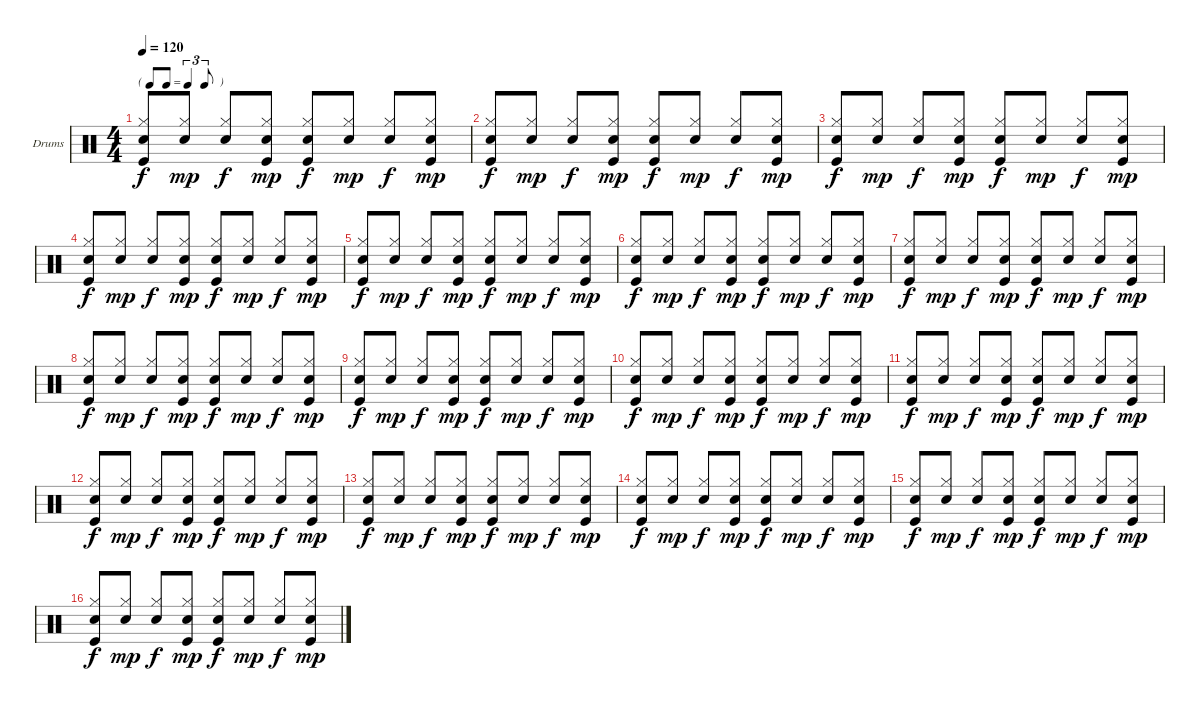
\defaultSystemsLayout 4
\bracketExtendMode groupsimilarinstruments
\firstSystemTrackNameOrientation horizontal
\otherSystemsTrackNameOrientation horizontal
\track ("Drumkit" "Drums") {instrument percussion}
\staff {score}
\articulation defaults
\ts (4 4)
\tf triplet8th
\tempo 120
\clef neutral
\ks c
("Hi-Hat (closed)" "Kick (hit)" "Snare (hit) 2").8{dy f beam invert} ("Hi-Hat (closed)" "Snare (hit) 2").8{dy mp} ("Hi-Hat (closed)" "Snare (hit) 2").8{dy f beam invert} ("Hi-Hat (closed)" "Kick (hit)" "Snare (hit) 2").8{dy mp} ("Hi-Hat (closed)" "Kick (hit)" "Snare (hit) 2").8{dy f beam invert} ("Hi-Hat (closed)" "Snare (hit) 2").8{dy mp} ("Hi-Hat (closed)" "Snare (hit) 2").8{dy f beam invert} ("Hi-Hat (closed)" "Kick (hit)" "Snare (hit) 2").8{dy mp} |
("Hi-Hat (closed)" "Kick (hit)" "Snare (hit) 2").8{dy f beam invert} ("Hi-Hat (closed)" "Snare (hit) 2").8{dy mp} ("Hi-Hat (closed)" "Snare (hit) 2").8{dy f beam invert} ("Hi-Hat (closed)" "Kick (hit)" "Snare (hit) 2").8{dy mp} ("Hi-Hat (closed)" "Kick (hit)" "Snare (hit) 2").8{dy f beam invert} ("Hi-Hat (closed)" "Snare (hit) 2").8{dy mp} ("Hi-Hat (closed)" "Snare (hit) 2").8{dy f beam invert} ("Hi-Hat (closed)" "Kick (hit)" "Snare (hit) 2").8{dy mp} |
("Hi-Hat (closed)" "Kick (hit)" "Snare (hit) 2").8{dy f beam invert} ("Hi-Hat (closed)" "Snare (hit) 2").8{dy mp} ("Hi-Hat (closed)" "Snare (hit) 2").8{dy f beam invert} ("Hi-Hat (closed)" "Kick (hit)" "Snare (hit) 2").8{dy mp} ("Hi-Hat (closed)" "Kick (hit)" "Snare (hit) 2").8{dy f beam invert} ("Hi-Hat (closed)" "Snare (hit) 2").8{dy mp} ("Hi-Hat (closed)" "Snare (hit) 2").8{dy f beam invert} ("Hi-Hat (closed)" "Kick (hit)" "Snare (hit) 2").8{dy mp} |
("Hi-Hat (closed)" "Kick (hit)" "Snare (hit) 2").8{dy f beam invert} ("Hi-Hat (closed)" "Snare (hit) 2").8{dy mp} ("Hi-Hat (closed)" "Snare (hit) 2").8{dy f beam invert} ("Hi-Hat (closed)" "Kick (hit)" "Snare (hit) 2").8{dy mp} ("Hi-Hat (closed)" "Kick (hit)" "Snare (hit) 2").8{dy f beam invert} ("Hi-Hat (closed)" "Snare (hit) 2").8{dy mp} ("Hi-Hat (closed)" "Snare (hit) 2").8{dy f beam invert} ("Hi-Hat (closed)" "Kick (hit)" "Snare (hit) 2").8{dy mp} |
("Hi-Hat (closed)" "Kick (hit)" "Snare (hit) 2").8{dy f beam invert} ("Hi-Hat (closed)" "Snare (hit) 2").8{dy mp} ("Hi-Hat (closed)" "Snare (hit) 2").8{dy f beam invert} ("Hi-Hat (closed)" "Kick (hit)" "Snare (hit) 2").8{dy mp} ("Hi-Hat (closed)" "Kick (hit)" "Snare (hit) 2").8{dy f beam invert} ("Hi-Hat (closed)" "Snare (hit) 2").8{dy mp} ("Hi-Hat (closed)" "Snare (hit) 2").8{dy f beam invert} ("Hi-Hat (closed)" "Kick (hit)" "Snare (hit) 2").8{dy mp} |
("Hi-Hat (closed)" "Kick (hit)" "Snare (hit) 2").8{dy f beam invert} ("Hi-Hat (closed)" "Snare (hit) 2").8{dy mp} ("Hi-Hat (closed)" "Snare (hit) 2").8{dy f beam invert} ("Hi-Hat (closed)" "Kick (hit)" "Snare (hit) 2").8{dy mp} ("Hi-Hat (closed)" "Kick (hit)" "Snare (hit) 2").8{dy f beam invert} ("Hi-Hat (closed)" "Snare (hit) 2").8{dy mp} ("Hi-Hat (closed)" "Snare (hit) 2").8{dy f beam invert} ("Hi-Hat (closed)" "Kick (hit)" "Snare (hit) 2").8{dy mp} |
("Hi-Hat (closed)" "Kick (hit)" "Snare (hit) 2").8{dy f beam invert} ("Hi-Hat (closed)" "Snare (hit) 2").8{dy mp} ("Hi-Hat (closed)" "Snare (hit) 2").8{dy f beam invert} ("Hi-Hat (closed)" "Kick (hit)" "Snare (hit) 2").8{dy mp} ("Hi-Hat (closed)" "Kick (hit)" "Snare (hit) 2").8{dy f beam invert} ("Hi-Hat (closed)" "Snare (hit) 2").8{dy mp} ("Hi-Hat (closed)" "Snare (hit) 2").8{dy f beam invert} ("Hi-Hat (closed)" "Kick (hit)" "Snare (hit) 2").8{dy mp} |
("Hi-Hat (closed)" "Kick (hit)" "Snare (hit) 2").8{dy f beam invert} ("Hi-Hat (closed)" "Snare (hit) 2").8{dy mp} ("Hi-Hat (closed)" "Snare (hit) 2").8{dy f beam invert} ("Hi-Hat (closed)" "Kick (hit)" "Snare (hit) 2").8{dy mp} ("Hi-Hat (closed)" "Kick (hit)" "Snare (hit) 2").8{dy f beam invert} ("Hi-Hat (closed)" "Snare (hit) 2").8{dy mp} ("Hi-Hat (closed)" "Snare (hit) 2").8{dy f beam invert} ("Hi-Hat (closed)" "Kick (hit)" "Snare (hit) 2").8{dy mp} |
("Hi-Hat (closed)" "Kick (hit)" "Snare (hit) 2").8{dy f beam invert} ("Hi-Hat (closed)" "Snare (hit) 2").8{dy mp} ("Hi-Hat (closed)" "Snare (hit) 2").8{dy f beam invert} ("Hi-Hat (closed)" "Kick (hit)" "Snare (hit) 2").8{dy mp} ("Hi-Hat (closed)" "Kick (hit)" "Snare (hit) 2").8{dy f beam invert} ("Hi-Hat (closed)" "Snare (hit) 2").8{dy mp} ("Hi-Hat (closed)" "Snare (hit) 2").8{dy f beam invert} ("Hi-Hat (closed)" "Kick (hit)" "Snare (hit) 2").8{dy mp} |
("Hi-Hat (closed)" "Kick (hit)" "Snare (hit) 2").8{dy f beam invert} ("Hi-Hat (closed)" "Snare (hit) 2").8{dy mp} ("Hi-Hat (closed)" "Snare (hit) 2").8{dy f beam invert} ("Hi-Hat (closed)" "Kick (hit)" "Snare (hit) 2").8{dy mp} ("Hi-Hat (closed)" "Kick (hit)" "Snare (hit) 2").8{dy f beam invert} ("Hi-Hat (closed)" "Snare (hit) 2").8{dy mp} ("Hi-Hat (closed)" "Snare (hit) 2").8{dy f beam invert} ("Hi-Hat (closed)" "Kick (hit)" "Snare (hit) 2").8{dy mp} |
("Hi-Hat (closed)" "Kick (hit)" "Snare (hit) 2").8{dy f beam invert} ("Hi-Hat (closed)" "Snare (hit) 2").8{dy mp} ("Hi-Hat (closed)" "Snare (hit) 2").8{dy f beam invert} ("Hi-Hat (closed)" "Kick (hit)" "Snare (hit) 2").8{dy mp} ("Hi-Hat (closed)" "Kick (hit)" "Snare (hit) 2").8{dy f beam invert} ("Hi-Hat (closed)" "Snare (hit) 2").8{dy mp} ("Hi-Hat (closed)" "Snare (hit) 2").8{dy f beam invert} ("Hi-Hat (closed)" "Kick (hit)" "Snare (hit) 2").8{dy mp} |
("Hi-Hat (closed)" "Kick (hit)" "Snare (hit) 2").8{dy f beam invert} ("Hi-Hat (closed)" "Snare (hit) 2").8{dy mp} ("Hi-Hat (closed)" "Snare (hit) 2").8{dy f beam invert} ("Hi-Hat (closed)" "Kick (hit)" "Snare (hit) 2").8{dy mp} ("Hi-Hat (closed)" "Kick (hit)" "Snare (hit) 2").8{dy f beam invert} ("Hi-Hat (closed)" "Snare (hit) 2").8{dy mp} ("Hi-Hat (closed)" "Snare (hit) 2").8{dy f beam invert} ("Hi-Hat (closed)" "Kick (hit)" "Snare (hit) 2").8{dy mp} |
("Hi-Hat (closed)" "Kick (hit)" "Snare (hit) 2").8{dy f beam invert} ("Hi-Hat (closed)" "Snare (hit) 2").8{dy mp} ("Hi-Hat (closed)" "Snare (hit) 2").8{dy f beam invert} ("Hi-Hat (closed)" "Kick (hit)" "Snare (hit) 2").8{dy mp} ("Hi-Hat (closed)" "Kick (hit)" "Snare (hit) 2").8{dy f beam invert} ("Hi-Hat (closed)" "Snare (hit) 2").8{dy mp} ("Hi-Hat (closed)" "Snare (hit) 2").8{dy f beam invert} ("Hi-Hat (closed)" "Kick (hit)" "Snare (hit) 2").8{dy mp} |
("Hi-Hat (closed)" "Kick (hit)" "Snare (hit) 2").8{dy f beam invert} ("Hi-Hat (closed)" "Snare (hit) 2").8{dy mp} ("Hi-Hat (closed)" "Snare (hit) 2").8{dy f beam invert} ("Hi-Hat (closed)" "Kick (hit)" "Snare (hit) 2").8{dy mp} ("Hi-Hat (closed)" "Kick (hit)" "Snare (hit) 2").8{dy f beam invert} ("Hi-Hat (closed)" "Snare (hit) 2").8{dy mp} ("Hi-Hat (closed)" "Snare (hit) 2").8{dy f beam invert} ("Hi-Hat (closed)" "Kick (hit)" "Snare (hit) 2").8{dy mp} |
("Hi-Hat (closed)" "Kick (hit)" "Snare (hit) 2").8{dy f beam invert} ("Hi-Hat (closed)" "Snare (hit) 2").8{dy mp} ("Hi-Hat (closed)" "Snare (hit) 2").8{dy f beam invert} ("Hi-Hat (closed)" "Kick (hit)" "Snare (hit) 2").8{dy mp} ("Hi-Hat (closed)" "Kick (hit)" "Snare (hit) 2").8{dy f beam invert} ("Hi-Hat (closed)" "Snare (hit) 2").8{dy mp} ("Hi-Hat (closed)" "Snare (hit) 2").8{dy f beam invert} ("Hi-Hat (closed)" "Kick (hit)" "Snare (hit) 2").8{dy mp} |
("Hi-Hat (closed)" "Kick (hit)" "Snare (hit) 2").8{dy f beam invert} ("Hi-Hat (closed)" "Snare (hit) 2").8{dy mp} ("Hi-Hat (closed)" "Snare (hit) 2").8{dy f beam invert} ("Hi-Hat (closed)" "Kick (hit)" "Snare (hit) 2").8{dy mp} ("Hi-Hat (closed)" "Kick (hit)" "Snare (hit) 2").8{dy f beam invert} ("Hi-Hat (closed)" "Snare (hit) 2").8{dy mp} ("Hi-Hat (closed)" "Snare (hit) 2").8{dy f beam invert} ("Hi-Hat (closed)" "Kick (hit)" "Snare (hit) 2").8{dy mp}
